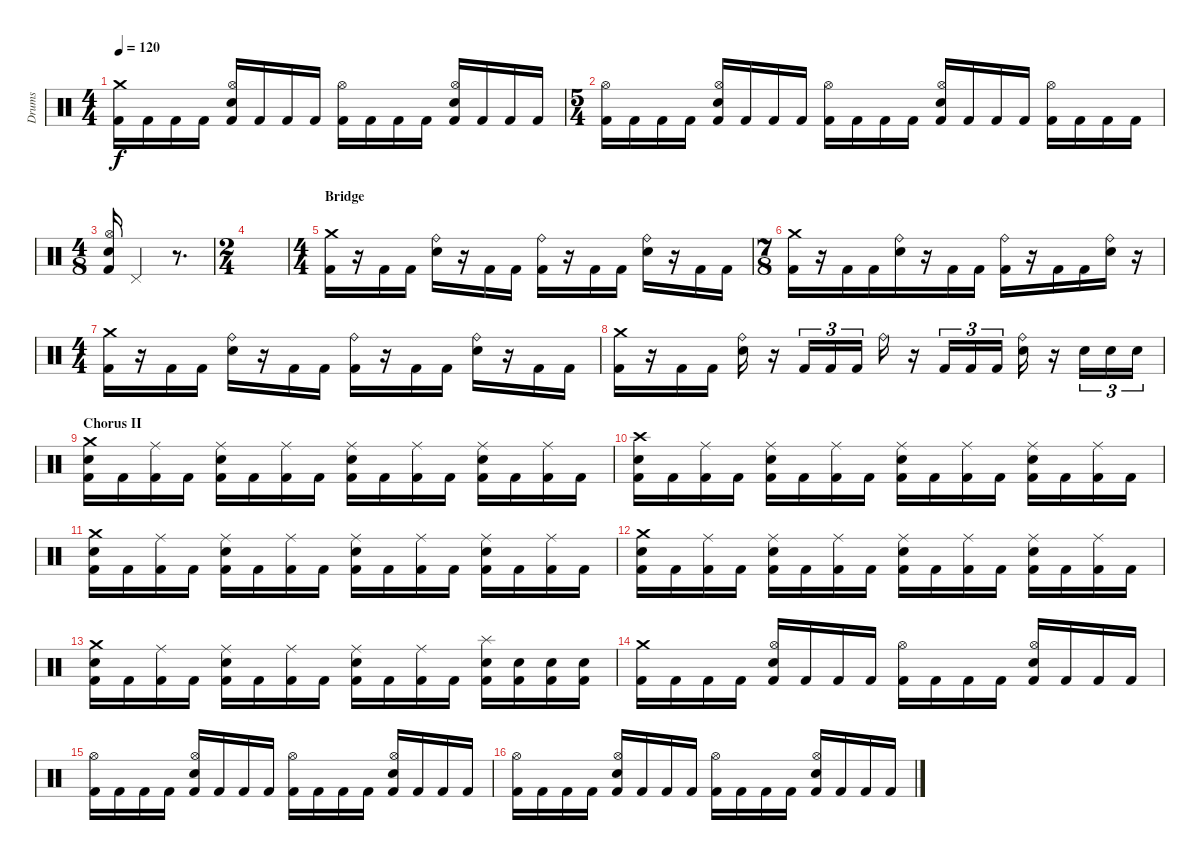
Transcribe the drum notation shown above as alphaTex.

\track ("Drums" "Drums") {instrument percussion}
\staff {score}
\articulation defaults
\ts (4 4)
\tempo 120
\clef neutral
\ks c
("Crash medium (hit)" "Kick (hit) 2").16{dy f} "Kick (hit) 2".16 "Kick (hit) 2".16 "Kick (hit) 2".16 ("Hi-Hat (open)" "Electric Snare (hit)" "Kick (hit) 2").16 "Kick (hit) 2".16 "Kick (hit) 2".16 "Kick (hit) 2".16 ("Hi-Hat (open)" "Kick (hit) 2").16 "Kick (hit) 2".16 "Kick (hit) 2".16 "Kick (hit) 2".16 ("Hi-Hat (open)" "Electric Snare (hit)" "Kick (hit) 2").16 "Kick (hit) 2".16 "Kick (hit) 2".16 "Kick (hit) 2".16 |
\ts (5 4)
("Hi-Hat (open)" "Kick (hit) 2").16 "Kick (hit) 2".16 "Kick (hit) 2".16 "Kick (hit) 2".16 ("Hi-Hat (open)" "Electric Snare (hit)" "Kick (hit) 2").16 "Kick (hit) 2".16 "Kick (hit) 2".16 "Kick (hit) 2".16 ("Hi-Hat (open)" "Kick (hit) 2").16 "Kick (hit) 2".16 "Kick (hit) 2".16 "Kick (hit) 2".16 ("Hi-Hat (open)" "Electric Snare (hit)" "Kick (hit) 2").16 "Kick (hit) 2".16 "Kick (hit) 2".16 "Kick (hit) 2".16 ("Hi-Hat (open)" "Kick (hit) 2").16 "Kick (hit) 2".16 "Kick (hit) 2".16 "Kick (hit) 2".16 |
\ts (4 8)
("Hi-Hat (open)" "Electric Snare (hit)" "Kick (hit) 2").16 "Pedal Hi-Hat (hit)".4 r.8{d} |
\ts (2 4)
|
\ts (4 4)
\section ("" "Bridge")
("Crash medium (hit)" "Kick (hit) 2").16 r.16 "Kick (hit) 2".16 "Kick (hit) 2".16 ("Ride (bell)" "Electric Snare (hit)").16 r.16 "Kick (hit) 2".16 "Kick (hit) 2".16 ("Ride (bell)" "Kick (hit) 2").16 r.16 "Kick (hit) 2".16 "Kick (hit) 2".16 ("Ride (bell)" "Electric Snare (hit)").16 r.16 "Kick (hit) 2".16 "Kick (hit) 2".16 |
\ts (7 8)
("Crash medium (hit)" "Kick (hit) 2").16 r.16 "Kick (hit) 2".16 "Kick (hit) 2".16 ("Ride (bell)" "Electric Snare (hit)").16 r.16 "Kick (hit) 2".16 "Kick (hit) 2".16 ("Ride (bell)" "Kick (hit) 2").16 r.16 "Kick (hit) 2".16 "Kick (hit) 2".16 ("Ride (bell)" "Electric Snare (hit)").16 r.16 |
\ts (4 4)
("Crash medium (hit)" "Kick (hit) 2").16 r.16 "Kick (hit) 2".16 "Kick (hit) 2".16 ("Ride (bell)" "Electric Snare (hit)").16 r.16 "Kick (hit) 2".16 "Kick (hit) 2".16 ("Ride (bell)" "Kick (hit) 2").16 r.16 "Kick (hit) 2".16 "Kick (hit) 2".16 ("Ride (bell)" "Electric Snare (hit)").16 r.16 "Kick (hit) 2".16 "Kick (hit) 2".16 |
("Crash medium (hit)" "Kick (hit) 2").16 r.16 "Kick (hit) 2".16 "Kick (hit) 2".16 ("Ride (bell)" "Electric Snare (hit)").16 r.16 "Kick (hit) 2".16{tu (3 2)} "Kick (hit) 2".16{tu (3 2)} "Kick (hit) 2".16{tu (3 2)} "Ride (bell)".16 r.16 "Kick (hit) 2".16{tu (3 2)} "Kick (hit) 2".16{tu (3 2)} "Kick (hit) 2".16{tu (3 2)} ("Ride (bell)" "Electric Snare (hit)").16 r.16 "Electric Snare (hit)".16{tu (3 2)} "Electric Snare (hit)".16{tu (3 2)} "Electric Snare (hit)".16{tu (3 2)} |
\section ("" "Chorus II")
("Crash medium (hit)" "Electric Snare (hit)" "Kick (hit) 2").16 "Kick (hit) 2".16 ("Ride (middle)" "Kick (hit) 2").16 "Kick (hit) 2".16 ("Ride (middle)" "Electric Snare (hit)" "Kick (hit) 2").16 "Kick (hit) 2".16 ("Ride (middle)" "Kick (hit) 2").16 "Kick (hit) 2".16 ("Ride (middle)" "Electric Snare (hit)" "Kick (hit) 2").16 "Kick (hit) 2".16 ("Ride (middle)" "Kick (hit) 2").16 "Kick (hit) 2".16 ("Ride (middle)" "Electric Snare (hit)" "Kick (hit) 2").16 "Kick (hit) 2".16 ("Ride (middle)" "Kick (hit) 2").16 "Kick (hit) 2".16 |
("Crash high (hit)" "Electric Snare (hit)" "Kick (hit) 2").16 "Kick (hit) 2".16 ("Ride (middle)" "Kick (hit) 2").16 "Kick (hit) 2".16 ("Ride (middle)" "Electric Snare (hit)" "Kick (hit) 2").16 "Kick (hit) 2".16 ("Ride (middle)" "Kick (hit) 2").16 "Kick (hit) 2".16 ("Ride (middle)" "Electric Snare (hit)" "Kick (hit) 2").16 "Kick (hit) 2".16 ("Ride (middle)" "Kick (hit) 2").16 "Kick (hit) 2".16 ("Ride (middle)" "Electric Snare (hit)" "Kick (hit) 2").16 "Kick (hit) 2".16 ("Ride (middle)" "Kick (hit) 2").16 "Kick (hit) 2".16 |
("Crash medium (hit)" "Electric Snare (hit)" "Kick (hit) 2").16 "Kick (hit) 2".16 ("Ride (middle)" "Kick (hit) 2").16 "Kick (hit) 2".16 ("Ride (middle)" "Electric Snare (hit)" "Kick (hit) 2").16 "Kick (hit) 2".16 ("Ride (middle)" "Kick (hit) 2").16 "Kick (hit) 2".16 ("Ride (middle)" "Electric Snare (hit)" "Kick (hit) 2").16 "Kick (hit) 2".16 ("Ride (middle)" "Kick (hit) 2").16 "Kick (hit) 2".16 ("Ride (middle)" "Electric Snare (hit)" "Kick (hit) 2").16 "Kick (hit) 2".16 ("Ride (middle)" "Kick (hit) 2").16 "Kick (hit) 2".16 |
("Crash medium (hit)" "Electric Snare (hit)" "Kick (hit) 2").16 "Kick (hit) 2".16 ("Ride (middle)" "Kick (hit) 2").16 "Kick (hit) 2".16 ("Ride (middle)" "Electric Snare (hit)" "Kick (hit) 2").16 "Kick (hit) 2".16 ("Ride (middle)" "Kick (hit) 2").16 "Kick (hit) 2".16 ("Ride (middle)" "Electric Snare (hit)" "Kick (hit) 2").16 "Kick (hit) 2".16 ("Ride (middle)" "Kick (hit) 2").16 "Kick (hit) 2".16 ("Ride (middle)" "Electric Snare (hit)" "Kick (hit) 2").16 "Kick (hit) 2".16 ("Ride (middle)" "Kick (hit) 2").16 "Kick (hit) 2".16 |
("Crash medium (hit)" "Electric Snare (hit)" "Kick (hit) 2").16 "Kick (hit) 2".16 ("Ride (middle)" "Kick (hit) 2").16 "Kick (hit) 2".16 ("Ride (middle)" "Electric Snare (hit)" "Kick (hit) 2").16 "Kick (hit) 2".16 ("Ride (middle)" "Kick (hit) 2").16 "Kick (hit) 2".16 ("Ride (middle)" "Electric Snare (hit)" "Kick (hit) 2").16 "Kick (hit) 2".16 ("Ride (middle)" "Kick (hit) 2").16 "Kick (hit) 2".16 ("Splash (hit)" "Electric Snare (hit)" "Kick (hit) 2").16 ("Electric Snare (hit)" "Kick (hit) 2").16 ("Electric Snare (hit)" "Kick (hit) 2").16 ("Electric Snare (hit)" "Kick (hit) 2").16 |
("Crash medium (hit)" "Kick (hit) 2").16 "Kick (hit) 2".16 "Kick (hit) 2".16 "Kick (hit) 2".16 ("Hi-Hat (open)" "Electric Snare (hit)" "Kick (hit) 2").16 "Kick (hit) 2".16 "Kick (hit) 2".16 "Kick (hit) 2".16 ("Hi-Hat (open)" "Kick (hit) 2").16 "Kick (hit) 2".16 "Kick (hit) 2".16 "Kick (hit) 2".16 ("Hi-Hat (open)" "Electric Snare (hit)" "Kick (hit) 2").16 "Kick (hit) 2".16 "Kick (hit) 2".16 "Kick (hit) 2".16 |
("Hi-Hat (open)" "Kick (hit) 2").16 "Kick (hit) 2".16 "Kick (hit) 2".16 "Kick (hit) 2".16 ("Hi-Hat (open)" "Electric Snare (hit)" "Kick (hit) 2").16 "Kick (hit) 2".16 "Kick (hit) 2".16 "Kick (hit) 2".16 ("Hi-Hat (open)" "Kick (hit) 2").16 "Kick (hit) 2".16 "Kick (hit) 2".16 "Kick (hit) 2".16 ("Hi-Hat (open)" "Electric Snare (hit)" "Kick (hit) 2").16 "Kick (hit) 2".16 "Kick (hit) 2".16 "Kick (hit) 2".16 |
("Hi-Hat (open)" "Kick (hit) 2").16 "Kick (hit) 2".16 "Kick (hit) 2".16 "Kick (hit) 2".16 ("Hi-Hat (open)" "Electric Snare (hit)" "Kick (hit) 2").16 "Kick (hit) 2".16 "Kick (hit) 2".16 "Kick (hit) 2".16 ("Hi-Hat (open)" "Kick (hit) 2").16 "Kick (hit) 2".16 "Kick (hit) 2".16 "Kick (hit) 2".16 ("Hi-Hat (open)" "Electric Snare (hit)" "Kick (hit) 2").16 "Kick (hit) 2".16 "Kick (hit) 2".16 "Kick (hit) 2".16
